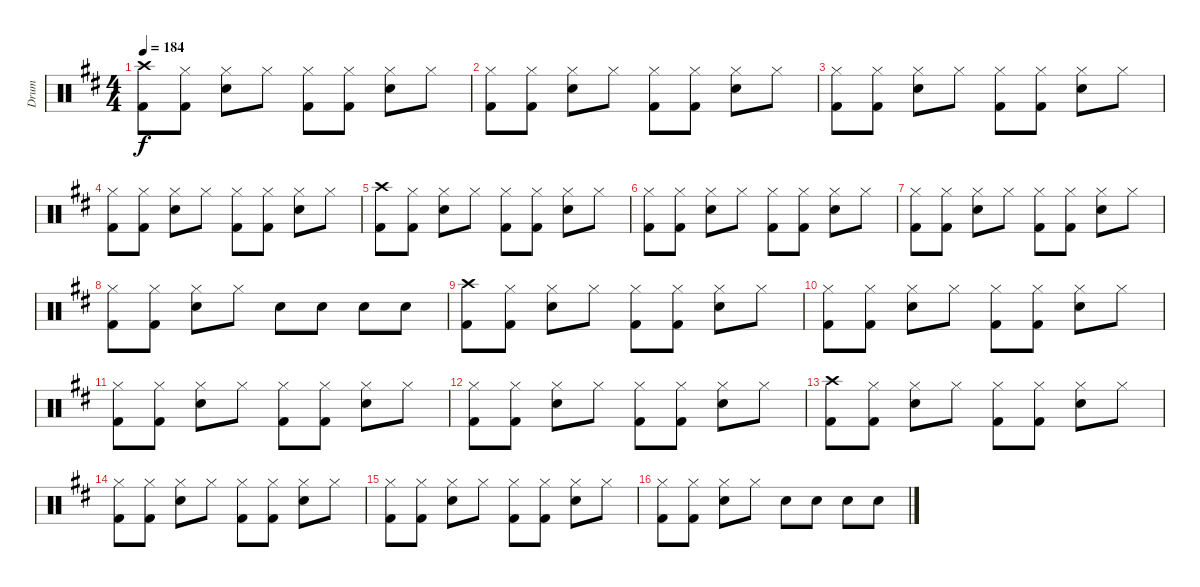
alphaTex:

\track ("Drum" "Drum") {instrument percussion}
\staff {score}
\articulation defaults
\ts (4 4)
\tempo 184
\clef neutral
\ks d
("Crash high (hit)" "Kick (hit) 2").8{dy f} ("Hi-Hat (closed)" "Kick (hit) 2").8 ("Hi-Hat (closed)" "Electric Snare (hit)").8 "Hi-Hat (closed)".8 ("Hi-Hat (closed)" "Kick (hit) 2").8 ("Hi-Hat (closed)" "Kick (hit) 2").8 ("Hi-Hat (closed)" "Electric Snare (hit)").8 "Hi-Hat (closed)".8 |
("Hi-Hat (closed)" "Kick (hit) 2").8 ("Hi-Hat (closed)" "Kick (hit) 2").8 ("Hi-Hat (closed)" "Electric Snare (hit)").8 "Hi-Hat (closed)".8 ("Hi-Hat (closed)" "Kick (hit) 2").8 ("Hi-Hat (closed)" "Kick (hit) 2").8 ("Hi-Hat (closed)" "Electric Snare (hit)").8 "Hi-Hat (closed)".8 |
("Hi-Hat (closed)" "Kick (hit) 2").8 ("Hi-Hat (closed)" "Kick (hit) 2").8 ("Hi-Hat (closed)" "Electric Snare (hit)").8 "Hi-Hat (closed)".8 ("Hi-Hat (closed)" "Kick (hit) 2").8 ("Hi-Hat (closed)" "Kick (hit) 2").8 ("Hi-Hat (closed)" "Electric Snare (hit)").8 "Hi-Hat (closed)".8 |
("Hi-Hat (closed)" "Kick (hit) 2").8 ("Hi-Hat (closed)" "Kick (hit) 2").8 ("Hi-Hat (closed)" "Electric Snare (hit)").8 "Hi-Hat (closed)".8 ("Hi-Hat (closed)" "Kick (hit) 2").8 ("Hi-Hat (closed)" "Kick (hit) 2").8 ("Hi-Hat (closed)" "Electric Snare (hit)").8 "Hi-Hat (closed)".8 |
("Crash high (hit)" "Kick (hit) 2").8 ("Hi-Hat (closed)" "Kick (hit) 2").8 ("Hi-Hat (closed)" "Electric Snare (hit)").8 "Hi-Hat (closed)".8 ("Hi-Hat (closed)" "Kick (hit) 2").8 ("Hi-Hat (closed)" "Kick (hit) 2").8 ("Hi-Hat (closed)" "Electric Snare (hit)").8 "Hi-Hat (closed)".8 |
("Hi-Hat (closed)" "Kick (hit) 2").8 ("Hi-Hat (closed)" "Kick (hit) 2").8 ("Hi-Hat (closed)" "Electric Snare (hit)").8 "Hi-Hat (closed)".8 ("Hi-Hat (closed)" "Kick (hit) 2").8 ("Hi-Hat (closed)" "Kick (hit) 2").8 ("Hi-Hat (closed)" "Electric Snare (hit)").8 "Hi-Hat (closed)".8 |
("Hi-Hat (closed)" "Kick (hit) 2").8 ("Hi-Hat (closed)" "Kick (hit) 2").8 ("Hi-Hat (closed)" "Electric Snare (hit)").8 "Hi-Hat (closed)".8 ("Hi-Hat (closed)" "Kick (hit) 2").8 ("Hi-Hat (closed)" "Kick (hit) 2").8 ("Hi-Hat (closed)" "Electric Snare (hit)").8 "Hi-Hat (closed)".8 |
("Hi-Hat (closed)" "Kick (hit) 2").8 ("Hi-Hat (closed)" "Kick (hit) 2").8 ("Hi-Hat (closed)" "Electric Snare (hit)").8 "Hi-Hat (closed)".8 "Electric Snare (hit)".8 "Electric Snare (hit)".8 "Electric Snare (hit)".8 "Electric Snare (hit)".8 |
("Crash high (hit)" "Kick (hit) 2").8 ("Hi-Hat (closed)" "Kick (hit) 2").8 ("Hi-Hat (closed)" "Electric Snare (hit)").8 "Hi-Hat (closed)".8 ("Hi-Hat (closed)" "Kick (hit) 2").8 ("Hi-Hat (closed)" "Kick (hit) 2").8 ("Hi-Hat (closed)" "Electric Snare (hit)").8 "Hi-Hat (closed)".8 |
("Hi-Hat (closed)" "Kick (hit) 2").8 ("Hi-Hat (closed)" "Kick (hit) 2").8 ("Hi-Hat (closed)" "Electric Snare (hit)").8 "Hi-Hat (closed)".8 ("Hi-Hat (closed)" "Kick (hit) 2").8 ("Hi-Hat (closed)" "Kick (hit) 2").8 ("Hi-Hat (closed)" "Electric Snare (hit)").8 "Hi-Hat (closed)".8 |
("Hi-Hat (closed)" "Kick (hit) 2").8 ("Hi-Hat (closed)" "Kick (hit) 2").8 ("Hi-Hat (closed)" "Electric Snare (hit)").8 "Hi-Hat (closed)".8 ("Hi-Hat (closed)" "Kick (hit) 2").8 ("Hi-Hat (closed)" "Kick (hit) 2").8 ("Hi-Hat (closed)" "Electric Snare (hit)").8 "Hi-Hat (closed)".8 |
("Hi-Hat (closed)" "Kick (hit) 2").8 ("Hi-Hat (closed)" "Kick (hit) 2").8 ("Hi-Hat (closed)" "Electric Snare (hit)").8 "Hi-Hat (closed)".8 ("Hi-Hat (closed)" "Kick (hit) 2").8 ("Hi-Hat (closed)" "Kick (hit) 2").8 ("Hi-Hat (closed)" "Electric Snare (hit)").8 "Hi-Hat (closed)".8 |
("Crash high (hit)" "Kick (hit) 2").8 ("Hi-Hat (closed)" "Kick (hit) 2").8 ("Hi-Hat (closed)" "Electric Snare (hit)").8 "Hi-Hat (closed)".8 ("Hi-Hat (closed)" "Kick (hit) 2").8 ("Hi-Hat (closed)" "Kick (hit) 2").8 ("Hi-Hat (closed)" "Electric Snare (hit)").8 "Hi-Hat (closed)".8 |
("Hi-Hat (closed)" "Kick (hit) 2").8 ("Hi-Hat (closed)" "Kick (hit) 2").8 ("Hi-Hat (closed)" "Electric Snare (hit)").8 "Hi-Hat (closed)".8 ("Hi-Hat (closed)" "Kick (hit) 2").8 ("Hi-Hat (closed)" "Kick (hit) 2").8 ("Hi-Hat (closed)" "Electric Snare (hit)").8 "Hi-Hat (closed)".8 |
("Hi-Hat (closed)" "Kick (hit) 2").8 ("Hi-Hat (closed)" "Kick (hit) 2").8 ("Hi-Hat (closed)" "Electric Snare (hit)").8 "Hi-Hat (closed)".8 ("Hi-Hat (closed)" "Kick (hit) 2").8 ("Hi-Hat (closed)" "Kick (hit) 2").8 ("Hi-Hat (closed)" "Electric Snare (hit)").8 "Hi-Hat (closed)".8 |
("Hi-Hat (closed)" "Kick (hit) 2").8 ("Hi-Hat (closed)" "Kick (hit) 2").8 ("Hi-Hat (closed)" "Electric Snare (hit)").8 "Hi-Hat (closed)".8 "Electric Snare (hit)".8 "Electric Snare (hit)".8 "Electric Snare (hit)".8 "Electric Snare (hit)".8
